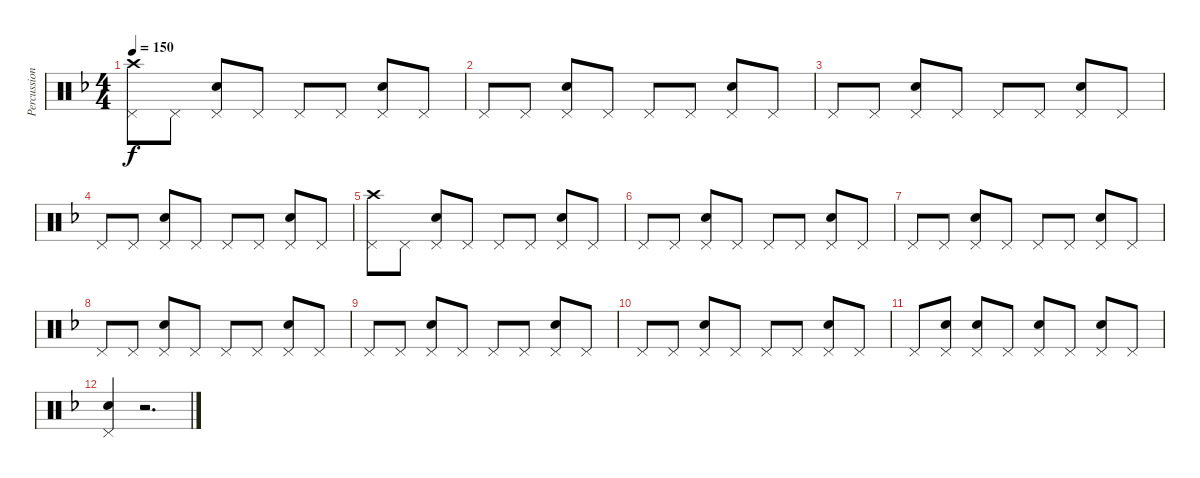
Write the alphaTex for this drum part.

\track ("Percussions" "Percussion") {instrument percussion}
\staff {score}
\articulation defaults
\ts (4 4)
\tempo 150
\clef neutral
\ks f
("Crash high (hit)" "Pedal Hi-Hat (hit)").8{dy f} "Pedal Hi-Hat (hit)".8 ("Pedal Hi-Hat (hit)" "Snare (hit) 2").8 "Pedal Hi-Hat (hit)".8 "Pedal Hi-Hat (hit)".8 "Pedal Hi-Hat (hit)".8 ("Pedal Hi-Hat (hit)" "Snare (hit) 2").8 "Pedal Hi-Hat (hit)".8 |
"Pedal Hi-Hat (hit)".8 "Pedal Hi-Hat (hit)".8 ("Pedal Hi-Hat (hit)" "Snare (hit) 2").8 "Pedal Hi-Hat (hit)".8 "Pedal Hi-Hat (hit)".8 "Pedal Hi-Hat (hit)".8 ("Pedal Hi-Hat (hit)" "Snare (hit) 2").8 "Pedal Hi-Hat (hit)".8 |
"Pedal Hi-Hat (hit)".8 "Pedal Hi-Hat (hit)".8 ("Pedal Hi-Hat (hit)" "Snare (hit) 2").8 "Pedal Hi-Hat (hit)".8 "Pedal Hi-Hat (hit)".8 "Pedal Hi-Hat (hit)".8 ("Pedal Hi-Hat (hit)" "Snare (hit) 2").8 "Pedal Hi-Hat (hit)".8 |
"Pedal Hi-Hat (hit)".8 "Pedal Hi-Hat (hit)".8 ("Pedal Hi-Hat (hit)" "Snare (hit) 2").8 "Pedal Hi-Hat (hit)".8 "Pedal Hi-Hat (hit)".8 "Pedal Hi-Hat (hit)".8 ("Pedal Hi-Hat (hit)" "Snare (hit) 2").8 "Pedal Hi-Hat (hit)".8 |
("Crash high (hit)" "Pedal Hi-Hat (hit)").8 "Pedal Hi-Hat (hit)".8 ("Pedal Hi-Hat (hit)" "Snare (hit) 2").8 "Pedal Hi-Hat (hit)".8 "Pedal Hi-Hat (hit)".8 "Pedal Hi-Hat (hit)".8 ("Pedal Hi-Hat (hit)" "Snare (hit) 2").8 "Pedal Hi-Hat (hit)".8 |
"Pedal Hi-Hat (hit)".8 "Pedal Hi-Hat (hit)".8 ("Pedal Hi-Hat (hit)" "Snare (hit) 2").8 "Pedal Hi-Hat (hit)".8 "Pedal Hi-Hat (hit)".8 "Pedal Hi-Hat (hit)".8 ("Pedal Hi-Hat (hit)" "Snare (hit) 2").8 "Pedal Hi-Hat (hit)".8 |
"Pedal Hi-Hat (hit)".8 "Pedal Hi-Hat (hit)".8 ("Pedal Hi-Hat (hit)" "Snare (hit) 2").8 "Pedal Hi-Hat (hit)".8 "Pedal Hi-Hat (hit)".8 "Pedal Hi-Hat (hit)".8 ("Pedal Hi-Hat (hit)" "Snare (hit) 2").8 "Pedal Hi-Hat (hit)".8 |
"Pedal Hi-Hat (hit)".8 "Pedal Hi-Hat (hit)".8 ("Pedal Hi-Hat (hit)" "Snare (hit) 2").8 "Pedal Hi-Hat (hit)".8 "Pedal Hi-Hat (hit)".8 "Pedal Hi-Hat (hit)".8 ("Pedal Hi-Hat (hit)" "Snare (hit) 2").8 "Pedal Hi-Hat (hit)".8 |
"Pedal Hi-Hat (hit)".8 "Pedal Hi-Hat (hit)".8 ("Pedal Hi-Hat (hit)" "Snare (hit) 2").8 "Pedal Hi-Hat (hit)".8 "Pedal Hi-Hat (hit)".8 "Pedal Hi-Hat (hit)".8 ("Pedal Hi-Hat (hit)" "Snare (hit) 2").8 "Pedal Hi-Hat (hit)".8 |
"Pedal Hi-Hat (hit)".8 "Pedal Hi-Hat (hit)".8 ("Pedal Hi-Hat (hit)" "Snare (hit) 2").8 "Pedal Hi-Hat (hit)".8 "Pedal Hi-Hat (hit)".8 "Pedal Hi-Hat (hit)".8 ("Pedal Hi-Hat (hit)" "Snare (hit) 2").8 "Pedal Hi-Hat (hit)".8 |
"Pedal Hi-Hat (hit)".8 ("Pedal Hi-Hat (hit)" "Snare (hit) 2").8 ("Pedal Hi-Hat (hit)" "Snare (hit) 2").8 "Pedal Hi-Hat (hit)".8 ("Pedal Hi-Hat (hit)" "Snare (hit) 2").8 "Pedal Hi-Hat (hit)".8 ("Pedal Hi-Hat (hit)" "Snare (hit) 2").8 "Pedal Hi-Hat (hit)".8 |
("Pedal Hi-Hat (hit)" "Snare (hit) 2").4 r.2{d}
